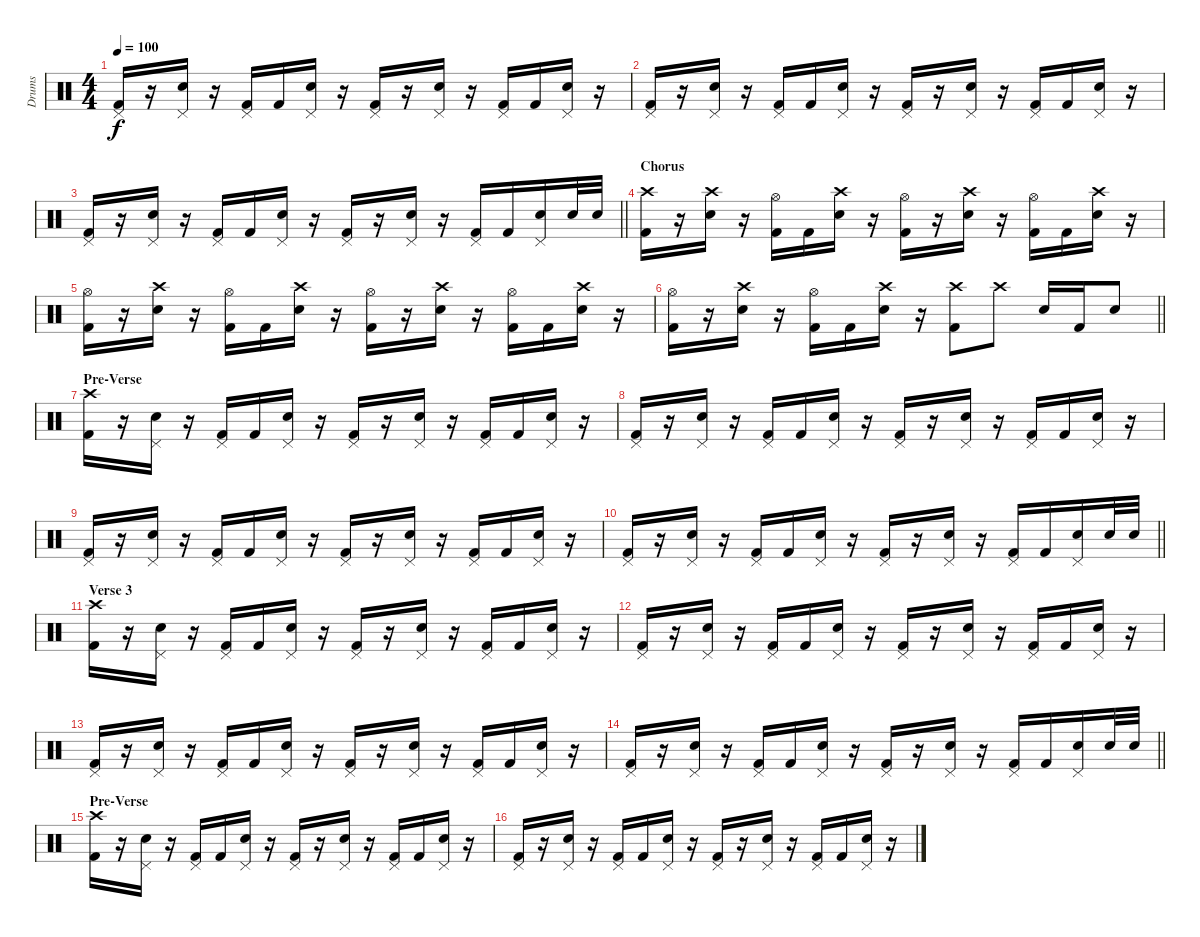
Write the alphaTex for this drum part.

\track ("Drums" "Drums") {instrument percussion}
\staff {score}
\articulation defaults
\ts (4 4)
\tempo 100
\clef neutral
\ks c
("Pedal Hi-Hat (hit)" "Kick (hit) 2").16{dy f} r.16 ("Pedal Hi-Hat (hit)" "Snare (hit) 2").16 r.16 ("Pedal Hi-Hat (hit)" "Kick (hit) 2").16 "Kick (hit) 2".16 ("Pedal Hi-Hat (hit)" "Snare (hit) 2").16 r.16 ("Pedal Hi-Hat (hit)" "Kick (hit) 2").16 r.16 ("Pedal Hi-Hat (hit)" "Snare (hit) 2").16 r.16 ("Pedal Hi-Hat (hit)" "Kick (hit) 2").16 "Kick (hit) 2".16 ("Pedal Hi-Hat (hit)" "Snare (hit) 2").16 r.16 |
("Pedal Hi-Hat (hit)" "Kick (hit) 2").16 r.16 ("Pedal Hi-Hat (hit)" "Snare (hit) 2").16 r.16 ("Pedal Hi-Hat (hit)" "Kick (hit) 2").16 "Kick (hit) 2".16 ("Pedal Hi-Hat (hit)" "Snare (hit) 2").16 r.16 ("Pedal Hi-Hat (hit)" "Kick (hit) 2").16 r.16 ("Pedal Hi-Hat (hit)" "Snare (hit) 2").16 r.16 ("Pedal Hi-Hat (hit)" "Kick (hit) 2").16 "Kick (hit) 2".16 ("Pedal Hi-Hat (hit)" "Snare (hit) 2").16 r.16 |
\barLineRight lightlight
("Pedal Hi-Hat (hit)" "Kick (hit) 2").16 r.16 ("Pedal Hi-Hat (hit)" "Snare (hit) 2").16 r.16 ("Pedal Hi-Hat (hit)" "Kick (hit) 2").16 "Kick (hit) 2".16 ("Pedal Hi-Hat (hit)" "Snare (hit) 2").16 r.16 ("Pedal Hi-Hat (hit)" "Kick (hit) 2").16 r.16 ("Pedal Hi-Hat (hit)" "Snare (hit) 2").16 r.16 ("Pedal Hi-Hat (hit)" "Kick (hit) 2").16 "Kick (hit) 2".16 ("Pedal Hi-Hat (hit)" "Snare (hit) 2").16 "Snare (hit) 2".32 "Snare (hit) 2".32 |
\section ("" "Chorus")
("Crash high (hit)" "Kick (hit) 2").16 r.16 ("Crash high (hit)" "Snare (hit) 2").16 r.16 ("Hi-Hat (open)" "Kick (hit) 2").16 "Kick (hit) 2".16 ("Crash high (hit)" "Snare (hit) 2").16 r.16 ("Hi-Hat (open)" "Kick (hit) 2").16 r.16 ("Crash high (hit)" "Snare (hit) 2").16 r.16 ("Hi-Hat (open)" "Kick (hit) 2").16 "Kick (hit) 2".16 ("Crash high (hit)" "Snare (hit) 2").16 r.16 |
("Hi-Hat (open)" "Kick (hit) 2").16 r.16 ("Crash high (hit)" "Snare (hit) 2").16 r.16 ("Hi-Hat (open)" "Kick (hit) 2").16 "Kick (hit) 2".16 ("Crash high (hit)" "Snare (hit) 2").16 r.16 ("Hi-Hat (open)" "Kick (hit) 2").16 r.16 ("Crash high (hit)" "Snare (hit) 2").16 r.16 ("Hi-Hat (open)" "Kick (hit) 2").16 "Kick (hit) 2".16 ("Crash high (hit)" "Snare (hit) 2").16 r.16 |
\barLineRight lightlight
("Hi-Hat (open)" "Kick (hit) 2").16 r.16 ("Crash high (hit)" "Snare (hit) 2").16 r.16 ("Hi-Hat (open)" "Kick (hit) 2").16 "Kick (hit) 2".16 ("Crash high (hit)" "Snare (hit) 2").16 r.16 ("Crash high (hit)" "Kick (hit) 2").8 "Crash high (hit)".8 "Snare (hit) 2".16 "Kick (hit) 2".16 "Snare (hit) 2".8 |
\section ("" "Pre-Verse")
("Crash high (hit)" "Kick (hit) 2").16 r.16 ("Pedal Hi-Hat (hit)" "Snare (hit) 2").16 r.16 ("Pedal Hi-Hat (hit)" "Kick (hit) 2").16 "Kick (hit) 2".16 ("Pedal Hi-Hat (hit)" "Snare (hit) 2").16 r.16 ("Pedal Hi-Hat (hit)" "Kick (hit) 2").16 r.16 ("Pedal Hi-Hat (hit)" "Snare (hit) 2").16 r.16 ("Pedal Hi-Hat (hit)" "Kick (hit) 2").16 "Kick (hit) 2".16 ("Pedal Hi-Hat (hit)" "Snare (hit) 2").16 r.16 |
("Pedal Hi-Hat (hit)" "Kick (hit) 2").16 r.16 ("Pedal Hi-Hat (hit)" "Snare (hit) 2").16 r.16 ("Pedal Hi-Hat (hit)" "Kick (hit) 2").16 "Kick (hit) 2".16 ("Pedal Hi-Hat (hit)" "Snare (hit) 2").16 r.16 ("Pedal Hi-Hat (hit)" "Kick (hit) 2").16 r.16 ("Pedal Hi-Hat (hit)" "Snare (hit) 2").16 r.16 ("Pedal Hi-Hat (hit)" "Kick (hit) 2").16 "Kick (hit) 2".16 ("Pedal Hi-Hat (hit)" "Snare (hit) 2").16 r.16 |
("Pedal Hi-Hat (hit)" "Kick (hit) 2").16 r.16 ("Pedal Hi-Hat (hit)" "Snare (hit) 2").16 r.16 ("Pedal Hi-Hat (hit)" "Kick (hit) 2").16 "Kick (hit) 2".16 ("Pedal Hi-Hat (hit)" "Snare (hit) 2").16 r.16 ("Pedal Hi-Hat (hit)" "Kick (hit) 2").16 r.16 ("Pedal Hi-Hat (hit)" "Snare (hit) 2").16 r.16 ("Pedal Hi-Hat (hit)" "Kick (hit) 2").16 "Kick (hit) 2".16 ("Pedal Hi-Hat (hit)" "Snare (hit) 2").16 r.16 |
\barLineRight lightlight
("Pedal Hi-Hat (hit)" "Kick (hit) 2").16 r.16 ("Pedal Hi-Hat (hit)" "Snare (hit) 2").16 r.16 ("Pedal Hi-Hat (hit)" "Kick (hit) 2").16 "Kick (hit) 2".16 ("Pedal Hi-Hat (hit)" "Snare (hit) 2").16 r.16 ("Pedal Hi-Hat (hit)" "Kick (hit) 2").16 r.16 ("Pedal Hi-Hat (hit)" "Snare (hit) 2").16 r.16 ("Pedal Hi-Hat (hit)" "Kick (hit) 2").16 "Kick (hit) 2".16 ("Pedal Hi-Hat (hit)" "Snare (hit) 2").16 "Snare (hit) 2".32 "Snare (hit) 2".32 |
\section ("" "Verse 3")
("Crash high (hit)" "Kick (hit) 2").16 r.16 ("Pedal Hi-Hat (hit)" "Snare (hit) 2").16 r.16 ("Pedal Hi-Hat (hit)" "Kick (hit) 2").16 "Kick (hit) 2".16 ("Pedal Hi-Hat (hit)" "Snare (hit) 2").16 r.16 ("Pedal Hi-Hat (hit)" "Kick (hit) 2").16 r.16 ("Pedal Hi-Hat (hit)" "Snare (hit) 2").16 r.16 ("Pedal Hi-Hat (hit)" "Kick (hit) 2").16 "Kick (hit) 2".16 ("Pedal Hi-Hat (hit)" "Snare (hit) 2").16 r.16 |
("Pedal Hi-Hat (hit)" "Kick (hit) 2").16 r.16 ("Pedal Hi-Hat (hit)" "Snare (hit) 2").16 r.16 ("Pedal Hi-Hat (hit)" "Kick (hit) 2").16 "Kick (hit) 2".16 ("Pedal Hi-Hat (hit)" "Snare (hit) 2").16 r.16 ("Pedal Hi-Hat (hit)" "Kick (hit) 2").16 r.16 ("Pedal Hi-Hat (hit)" "Snare (hit) 2").16 r.16 ("Pedal Hi-Hat (hit)" "Kick (hit) 2").16 "Kick (hit) 2".16 ("Pedal Hi-Hat (hit)" "Snare (hit) 2").16 r.16 |
("Pedal Hi-Hat (hit)" "Kick (hit) 2").16 r.16 ("Pedal Hi-Hat (hit)" "Snare (hit) 2").16 r.16 ("Pedal Hi-Hat (hit)" "Kick (hit) 2").16 "Kick (hit) 2".16 ("Pedal Hi-Hat (hit)" "Snare (hit) 2").16 r.16 ("Pedal Hi-Hat (hit)" "Kick (hit) 2").16 r.16 ("Pedal Hi-Hat (hit)" "Snare (hit) 2").16 r.16 ("Pedal Hi-Hat (hit)" "Kick (hit) 2").16 "Kick (hit) 2".16 ("Pedal Hi-Hat (hit)" "Snare (hit) 2").16 r.16 |
\barLineRight lightlight
("Pedal Hi-Hat (hit)" "Kick (hit) 2").16 r.16 ("Pedal Hi-Hat (hit)" "Snare (hit) 2").16 r.16 ("Pedal Hi-Hat (hit)" "Kick (hit) 2").16 "Kick (hit) 2".16 ("Pedal Hi-Hat (hit)" "Snare (hit) 2").16 r.16 ("Pedal Hi-Hat (hit)" "Kick (hit) 2").16 r.16 ("Pedal Hi-Hat (hit)" "Snare (hit) 2").16 r.16 ("Pedal Hi-Hat (hit)" "Kick (hit) 2").16 "Kick (hit) 2".16 ("Pedal Hi-Hat (hit)" "Snare (hit) 2").16 "Snare (hit) 2".32 "Snare (hit) 2".32 |
\section ("" "Pre-Verse")
("Crash high (hit)" "Kick (hit) 2").16 r.16 ("Pedal Hi-Hat (hit)" "Snare (hit) 2").16 r.16 ("Pedal Hi-Hat (hit)" "Kick (hit) 2").16 "Kick (hit) 2".16 ("Pedal Hi-Hat (hit)" "Snare (hit) 2").16 r.16 ("Pedal Hi-Hat (hit)" "Kick (hit) 2").16 r.16 ("Pedal Hi-Hat (hit)" "Snare (hit) 2").16 r.16 ("Pedal Hi-Hat (hit)" "Kick (hit) 2").16 "Kick (hit) 2".16 ("Pedal Hi-Hat (hit)" "Snare (hit) 2").16 r.16 |
("Pedal Hi-Hat (hit)" "Kick (hit) 2").16 r.16 ("Pedal Hi-Hat (hit)" "Snare (hit) 2").16 r.16 ("Pedal Hi-Hat (hit)" "Kick (hit) 2").16 "Kick (hit) 2".16 ("Pedal Hi-Hat (hit)" "Snare (hit) 2").16 r.16 ("Pedal Hi-Hat (hit)" "Kick (hit) 2").16 r.16 ("Pedal Hi-Hat (hit)" "Snare (hit) 2").16 r.16 ("Pedal Hi-Hat (hit)" "Kick (hit) 2").16 "Kick (hit) 2".16 ("Pedal Hi-Hat (hit)" "Snare (hit) 2").16 r.16
